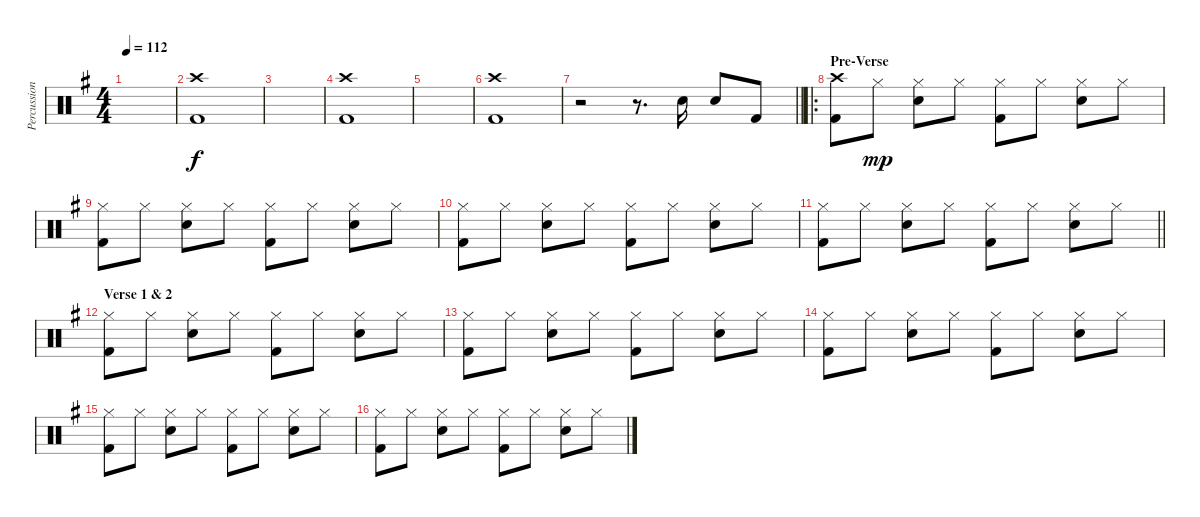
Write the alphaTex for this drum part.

\track ("Percussion" "Percussion") {instrument percussion}
\staff {score}
\articulation defaults
\ts (4 4)
\tempo 112
\clef neutral
\ks g
|
("Crash high (hit)" "Kick (hit) 2").1 |
|
("Crash high (hit)" "Kick (hit) 2").1 |
|
("Crash high (hit)" "Kick (hit) 2").1 |
\barLineRight lightlight
r.2 r.8{d} "Snare (hit) 2".16 "Snare (hit) 2".8 "Kick (hit) 2".8 |
\ro
\section ("" "Pre-Verse")
("Crash high (hit)" "Kick (hit) 2").8 "Hi-Hat (closed)".8{dy mp} ("Hi-Hat (closed)" "Snare (hit) 2").8 "Hi-Hat (closed)".8 ("Hi-Hat (closed)" "Kick (hit) 2").8 "Hi-Hat (closed)".8 ("Hi-Hat (closed)" "Snare (hit) 2").8 "Hi-Hat (closed)".8 |
("Hi-Hat (closed)" "Kick (hit) 2").8 "Hi-Hat (closed)".8 ("Hi-Hat (closed)" "Snare (hit) 2").8 "Hi-Hat (closed)".8 ("Hi-Hat (closed)" "Kick (hit) 2").8 "Hi-Hat (closed)".8 ("Hi-Hat (closed)" "Snare (hit) 2").8 "Hi-Hat (closed)".8 |
("Hi-Hat (closed)" "Kick (hit) 2").8 "Hi-Hat (closed)".8 ("Hi-Hat (closed)" "Snare (hit) 2").8 "Hi-Hat (closed)".8 ("Hi-Hat (closed)" "Kick (hit) 2").8 "Hi-Hat (closed)".8 ("Hi-Hat (closed)" "Snare (hit) 2").8 "Hi-Hat (closed)".8 |
\barLineRight lightlight
("Hi-Hat (closed)" "Kick (hit) 2").8 "Hi-Hat (closed)".8 ("Hi-Hat (closed)" "Snare (hit) 2").8 "Hi-Hat (closed)".8 ("Hi-Hat (closed)" "Kick (hit) 2").8 "Hi-Hat (closed)".8 ("Hi-Hat (closed)" "Snare (hit) 2").8 "Hi-Hat (closed)".8 |
\section ("" "Verse 1 & 2")
("Hi-Hat (closed)" "Kick (hit) 2").8 "Hi-Hat (closed)".8 ("Hi-Hat (closed)" "Snare (hit) 2").8 "Hi-Hat (closed)".8 ("Hi-Hat (closed)" "Kick (hit) 2").8 "Hi-Hat (closed)".8 ("Hi-Hat (closed)" "Snare (hit) 2").8 "Hi-Hat (closed)".8 |
("Hi-Hat (closed)" "Kick (hit) 2").8 "Hi-Hat (closed)".8 ("Hi-Hat (closed)" "Snare (hit) 2").8 "Hi-Hat (closed)".8 ("Hi-Hat (closed)" "Kick (hit) 2").8 "Hi-Hat (closed)".8 ("Hi-Hat (closed)" "Snare (hit) 2").8 "Hi-Hat (closed)".8 |
("Hi-Hat (closed)" "Kick (hit) 2").8 "Hi-Hat (closed)".8 ("Hi-Hat (closed)" "Snare (hit) 2").8 "Hi-Hat (closed)".8 ("Hi-Hat (closed)" "Kick (hit) 2").8 "Hi-Hat (closed)".8 ("Hi-Hat (closed)" "Snare (hit) 2").8 "Hi-Hat (closed)".8 |
("Hi-Hat (closed)" "Kick (hit) 2").8 "Hi-Hat (closed)".8 ("Hi-Hat (closed)" "Snare (hit) 2").8 "Hi-Hat (closed)".8 ("Hi-Hat (closed)" "Kick (hit) 2").8 "Hi-Hat (closed)".8 ("Hi-Hat (closed)" "Snare (hit) 2").8 "Hi-Hat (closed)".8 |
("Hi-Hat (closed)" "Kick (hit) 2").8 "Hi-Hat (closed)".8 ("Hi-Hat (closed)" "Snare (hit) 2").8 "Hi-Hat (closed)".8 ("Hi-Hat (closed)" "Kick (hit) 2").8 "Hi-Hat (closed)".8 ("Hi-Hat (closed)" "Snare (hit) 2").8 "Hi-Hat (closed)".8
